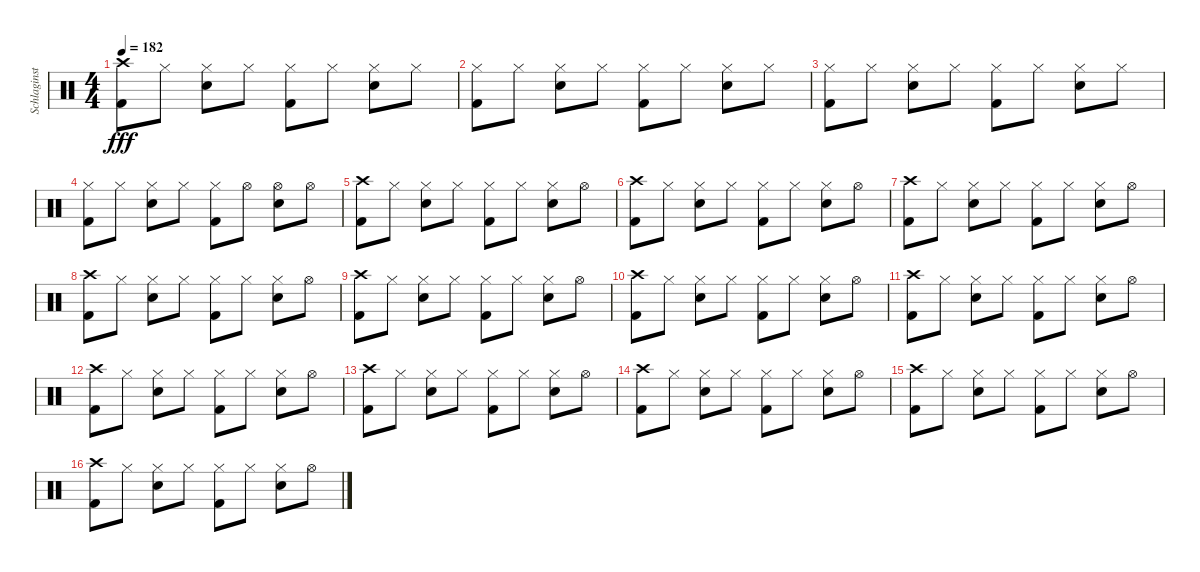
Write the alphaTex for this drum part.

\track ("Schlaginstrumente - Auswahl" "Schlaginst") {instrument percussion}
\staff {score}
\articulation defaults
\ts (4 4)
\tempo 182
\clef neutral
\ks c
("Kick (hit) 2" "Crash high (hit)").8{dy fff} "Hi-Hat (closed)".8 ("Snare (hit) 2" "Hi-Hat (closed)").8 "Hi-Hat (closed)".8 ("Kick (hit) 2" "Hi-Hat (closed)").8 "Hi-Hat (closed)".8 ("Snare (hit) 2" "Hi-Hat (closed)").8 "Hi-Hat (closed)".8 |
("Kick (hit) 2" "Hi-Hat (closed)").8 "Hi-Hat (closed)".8 ("Snare (hit) 2" "Hi-Hat (closed)").8 "Hi-Hat (closed)".8 ("Kick (hit) 2" "Hi-Hat (closed)").8 "Hi-Hat (closed)".8 ("Snare (hit) 2" "Hi-Hat (closed)").8 "Hi-Hat (closed)".8 |
("Kick (hit) 2" "Hi-Hat (closed)").8 "Hi-Hat (closed)".8 ("Snare (hit) 2" "Hi-Hat (closed)").8 "Hi-Hat (closed)".8 ("Kick (hit) 2" "Hi-Hat (closed)").8 "Hi-Hat (closed)".8 ("Snare (hit) 2" "Hi-Hat (closed)").8 "Hi-Hat (closed)".8 |
("Kick (hit) 2" "Hi-Hat (closed)").8 "Hi-Hat (closed)".8 ("Snare (hit) 2" "Hi-Hat (closed)").8 "Hi-Hat (closed)".8 ("Kick (hit) 2" "Hi-Hat (closed)").8 "Hi-Hat (open)".8 ("Snare (hit) 2" "Hi-Hat (open)").8 "Hi-Hat (open)".8 |
("Kick (hit) 2" "Crash high (hit)").8 "Hi-Hat (closed)".8 ("Snare (hit) 2" "Hi-Hat (closed)").8 "Hi-Hat (closed)".8 ("Kick (hit) 2" "Hi-Hat (closed)").8 "Hi-Hat (closed)".8 ("Snare (hit) 2" "Hi-Hat (closed)").8 "Hi-Hat (open)".8 |
("Kick (hit) 2" "Crash high (hit)").8 "Hi-Hat (closed)".8 ("Snare (hit) 2" "Hi-Hat (closed)").8 "Hi-Hat (closed)".8 ("Kick (hit) 2" "Hi-Hat (closed)").8 "Hi-Hat (closed)".8 ("Snare (hit) 2" "Hi-Hat (closed)").8 "Hi-Hat (open)".8 |
("Kick (hit) 2" "Crash high (hit)").8 "Hi-Hat (closed)".8 ("Snare (hit) 2" "Hi-Hat (closed)").8 "Hi-Hat (closed)".8 ("Kick (hit) 2" "Hi-Hat (closed)").8 "Hi-Hat (closed)".8 ("Snare (hit) 2" "Hi-Hat (closed)").8 "Hi-Hat (open)".8 |
("Kick (hit) 2" "Crash high (hit)").8 "Hi-Hat (closed)".8 ("Snare (hit) 2" "Hi-Hat (closed)").8 "Hi-Hat (closed)".8 ("Kick (hit) 2" "Hi-Hat (closed)").8 "Hi-Hat (closed)".8 ("Snare (hit) 2" "Hi-Hat (closed)").8 "Hi-Hat (open)".8 |
("Kick (hit) 2" "Crash high (hit)").8 "Hi-Hat (closed)".8 ("Snare (hit) 2" "Hi-Hat (closed)").8 "Hi-Hat (closed)".8 ("Kick (hit) 2" "Hi-Hat (closed)").8 "Hi-Hat (closed)".8 ("Snare (hit) 2" "Hi-Hat (closed)").8 "Hi-Hat (open)".8 |
("Kick (hit) 2" "Crash high (hit)").8 "Hi-Hat (closed)".8 ("Snare (hit) 2" "Hi-Hat (closed)").8 "Hi-Hat (closed)".8 ("Kick (hit) 2" "Hi-Hat (closed)").8 "Hi-Hat (closed)".8 ("Snare (hit) 2" "Hi-Hat (closed)").8 "Hi-Hat (open)".8 |
("Kick (hit) 2" "Crash high (hit)").8 "Hi-Hat (closed)".8 ("Snare (hit) 2" "Hi-Hat (closed)").8 "Hi-Hat (closed)".8 ("Kick (hit) 2" "Hi-Hat (closed)").8 "Hi-Hat (closed)".8 ("Snare (hit) 2" "Hi-Hat (closed)").8 "Hi-Hat (open)".8 |
("Kick (hit) 2" "Crash high (hit)").8 "Hi-Hat (closed)".8 ("Snare (hit) 2" "Hi-Hat (closed)").8 "Hi-Hat (closed)".8 ("Kick (hit) 2" "Hi-Hat (closed)").8 "Hi-Hat (closed)".8 ("Snare (hit) 2" "Hi-Hat (closed)").8 "Hi-Hat (open)".8 |
("Kick (hit) 2" "Crash high (hit)").8 "Hi-Hat (closed)".8 ("Snare (hit) 2" "Hi-Hat (closed)").8 "Hi-Hat (closed)".8 ("Kick (hit) 2" "Hi-Hat (closed)").8 "Hi-Hat (closed)".8 ("Snare (hit) 2" "Hi-Hat (closed)").8 "Hi-Hat (open)".8 |
("Kick (hit) 2" "Crash high (hit)").8 "Hi-Hat (closed)".8 ("Snare (hit) 2" "Hi-Hat (closed)").8 "Hi-Hat (closed)".8 ("Kick (hit) 2" "Hi-Hat (closed)").8 "Hi-Hat (closed)".8 ("Snare (hit) 2" "Hi-Hat (closed)").8 "Hi-Hat (open)".8 |
("Kick (hit) 2" "Crash high (hit)").8 "Hi-Hat (closed)".8 ("Snare (hit) 2" "Hi-Hat (closed)").8 "Hi-Hat (closed)".8 ("Kick (hit) 2" "Hi-Hat (closed)").8 "Hi-Hat (closed)".8 ("Snare (hit) 2" "Hi-Hat (closed)").8 "Hi-Hat (open)".8 |
("Kick (hit) 2" "Crash high (hit)").8 "Hi-Hat (closed)".8 ("Snare (hit) 2" "Hi-Hat (closed)").8 "Hi-Hat (closed)".8 ("Kick (hit) 2" "Hi-Hat (closed)").8 "Hi-Hat (closed)".8 ("Snare (hit) 2" "Hi-Hat (closed)").8 "Hi-Hat (open)".8
